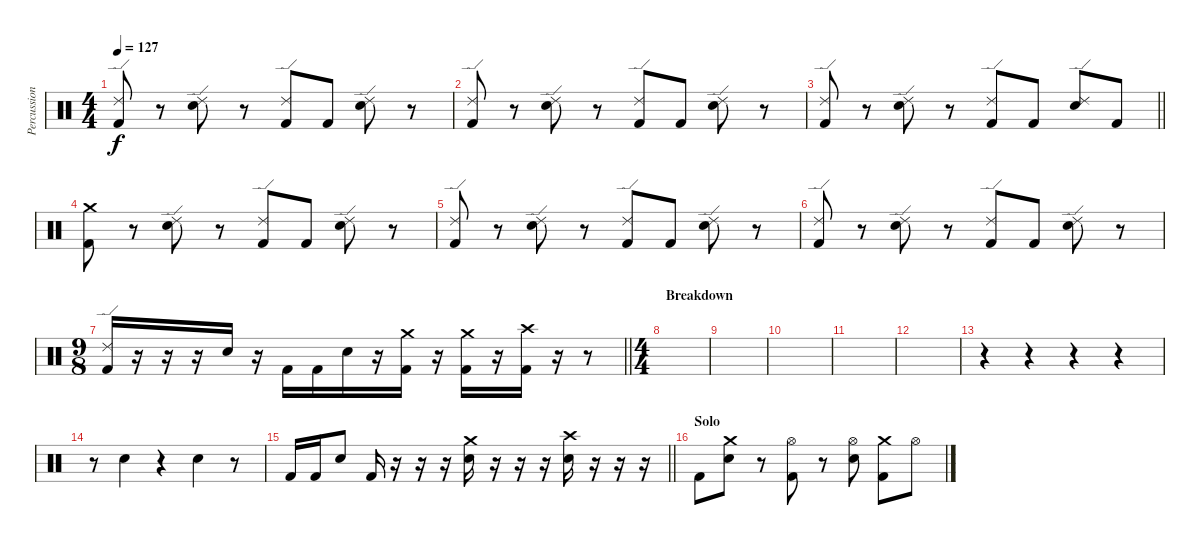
\track ("Percussion" "Percussion") {instrument percussion}
\staff {score}
\articulation defaults
\ts (4 4)
\tempo 127
\clef neutral
\ks c
("Ride (edge) 2" "Kick (hit) 2").8{dy f} r.8 ("Ride (edge) 2" "Electric Snare (hit)").8 r.8 ("Ride (edge) 2" "Kick (hit) 2").8 "Kick (hit) 2".8 ("Ride (edge) 2" "Electric Snare (hit)").8 r.8 |
("Ride (edge) 2" "Kick (hit) 2").8 r.8 ("Ride (edge) 2" "Electric Snare (hit)").8 r.8 ("Ride (edge) 2" "Kick (hit) 2").8 "Kick (hit) 2".8 ("Ride (edge) 2" "Electric Snare (hit)").8 r.8 |
\barLineRight lightlight
("Ride (edge) 2" "Kick (hit) 2").8 r.8 ("Ride (edge) 2" "Electric Snare (hit)").8 r.8 ("Ride (edge) 2" "Kick (hit) 2").8 "Kick (hit) 2".8 ("Ride (edge) 2" "Electric Snare (hit)").8 "Kick (hit) 2".8 |
("Crash medium (hit)" "Kick (hit) 2").8 r.8 ("Ride (edge) 2" "Electric Snare (hit)").8 r.8 ("Ride (edge) 2" "Kick (hit) 2").8 "Kick (hit) 2".8 ("Ride (edge) 2" "Electric Snare (hit)").8 r.8 |
("Ride (edge) 2" "Kick (hit) 2").8 r.8 ("Ride (edge) 2" "Electric Snare (hit)").8 r.8 ("Ride (edge) 2" "Kick (hit) 2").8 "Kick (hit) 2".8 ("Ride (edge) 2" "Electric Snare (hit)").8 r.8 |
("Ride (edge) 2" "Kick (hit) 2").8 r.8 ("Ride (edge) 2" "Electric Snare (hit)").8 r.8 ("Ride (edge) 2" "Kick (hit) 2").8 "Kick (hit) 2".8 ("Ride (edge) 2" "Electric Snare (hit)").8 r.8 |
\ts (9 8)
\barLineRight lightlight
("Ride (edge) 2" "Kick (hit) 2").16 r.16 r.16 r.16 "Electric Snare (hit)".16 r.16 "Kick (hit) 2".16 "Kick (hit) 2".16 "Electric Snare (hit)".16 r.16 ("Crash medium (hit)" "Kick (hit) 2").16 r.16 ("Crash medium (hit)" "Kick (hit) 2").16 r.16 ("Crash high (hit)" "Kick (hit) 2").16 r.16 r.8 |
\ts (4 4)
\section ("" "Breakdown")
|
|
|
|
|
r.4 r.4 r.4 r.4 |
r.8 "Electric Snare (hit)".4 r.4 "Electric Snare (hit)".4 r.8 |
\barLineRight lightlight "Kick (hit) 2".16 "Kick (hit) 2".16 "Electric Snare (hit)".8 "Kick (hit) 2".16
r.16 r.16 r.16 ("Crash medium (hit)" "Electric Snare (hit)").16 r.16 r.16 r.16 ("Crash high (hit)" "Electric Snare (hit)").16 r.16 r.16 r.16 |
\section ("" "Solo")
"Kick (hit) 2".8 ("Crash medium (hit)" "Electric Snare (hit)").8 r.8 ("Hi-Hat (open)" "Kick (hit) 2").8 r.8 ("Hi-Hat (open)" "Electric Snare (hit)").8 ("Crash medium (hit)" "Kick (hit) 2").8 "Hi-Hat (open)".8
